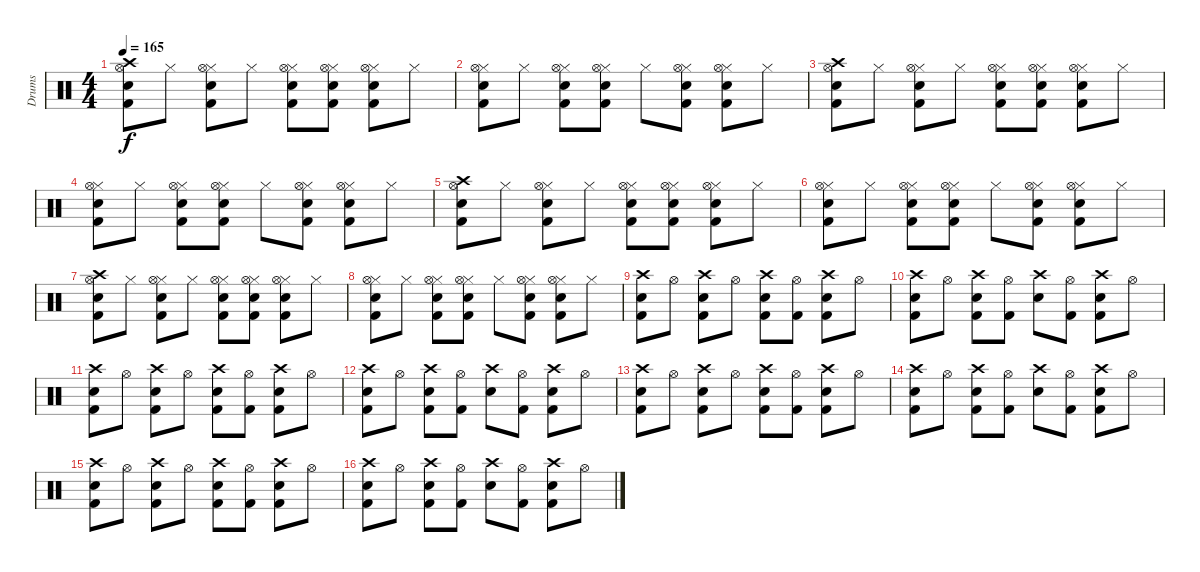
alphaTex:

\track ("Drums" "Drums") {instrument percussion}
\staff {score}
\articulation defaults
\ts (4 4)
\tempo 165
\clef neutral
\ks c
("Crash high (hit)" "Electric Snare (hit)" "Kick (hit) 2" "Hi-Hat (open)").8{dy f} "Hi-Hat (closed)".8 ("Hi-Hat (closed)" "Electric Snare (hit)" "Kick (hit) 2" "Hi-Hat (open)").8 "Hi-Hat (closed)".8 ("Hi-Hat (closed)" "Electric Snare (hit)" "Kick (hit) 2" "Hi-Hat (open)").8 ("Hi-Hat (closed)" "Electric Snare (hit)" "Kick (hit) 2" "Hi-Hat (open)").8 ("Hi-Hat (closed)" "Electric Snare (hit)" "Kick (hit) 2" "Hi-Hat (open)").8 "Hi-Hat (closed)".8 |
("Hi-Hat (closed)" "Electric Snare (hit)" "Kick (hit) 2" "Hi-Hat (open)").8 "Hi-Hat (closed)".8 ("Hi-Hat (closed)" "Electric Snare (hit)" "Kick (hit) 2" "Hi-Hat (open)").8 ("Hi-Hat (closed)" "Electric Snare (hit)" "Kick (hit) 2" "Hi-Hat (open)").8 "Hi-Hat (closed)".8 ("Hi-Hat (closed)" "Electric Snare (hit)" "Kick (hit) 2" "Hi-Hat (open)").8 ("Hi-Hat (closed)" "Electric Snare (hit)" "Kick (hit) 2" "Hi-Hat (open)").8 "Hi-Hat (closed)".8 |
("Crash high (hit)" "Electric Snare (hit)" "Kick (hit) 2" "Hi-Hat (open)").8 "Hi-Hat (closed)".8 ("Hi-Hat (closed)" "Electric Snare (hit)" "Kick (hit) 2" "Hi-Hat (open)").8 "Hi-Hat (closed)".8 ("Hi-Hat (closed)" "Electric Snare (hit)" "Kick (hit) 2" "Hi-Hat (open)").8 ("Hi-Hat (closed)" "Electric Snare (hit)" "Kick (hit) 2" "Hi-Hat (open)").8 ("Hi-Hat (closed)" "Electric Snare (hit)" "Kick (hit) 2" "Hi-Hat (open)").8 "Hi-Hat (closed)".8 |
("Hi-Hat (closed)" "Electric Snare (hit)" "Kick (hit) 2" "Hi-Hat (open)").8 "Hi-Hat (closed)".8 ("Hi-Hat (closed)" "Electric Snare (hit)" "Kick (hit) 2" "Hi-Hat (open)").8 ("Hi-Hat (closed)" "Electric Snare (hit)" "Kick (hit) 2" "Hi-Hat (open)").8 "Hi-Hat (closed)".8 ("Hi-Hat (closed)" "Electric Snare (hit)" "Kick (hit) 2" "Hi-Hat (open)").8 ("Hi-Hat (closed)" "Electric Snare (hit)" "Kick (hit) 2" "Hi-Hat (open)").8 "Hi-Hat (closed)".8 |
("Crash high (hit)" "Electric Snare (hit)" "Kick (hit) 2" "Hi-Hat (open)").8 "Hi-Hat (closed)".8 ("Hi-Hat (closed)" "Electric Snare (hit)" "Kick (hit) 2" "Hi-Hat (open)").8 "Hi-Hat (closed)".8 ("Hi-Hat (closed)" "Electric Snare (hit)" "Kick (hit) 2" "Hi-Hat (open)").8 ("Hi-Hat (closed)" "Electric Snare (hit)" "Kick (hit) 2" "Hi-Hat (open)").8 ("Hi-Hat (closed)" "Electric Snare (hit)" "Kick (hit) 2" "Hi-Hat (open)").8 "Hi-Hat (closed)".8 |
("Hi-Hat (closed)" "Electric Snare (hit)" "Kick (hit) 2" "Hi-Hat (open)").8 "Hi-Hat (closed)".8 ("Hi-Hat (closed)" "Electric Snare (hit)" "Kick (hit) 2" "Hi-Hat (open)").8 ("Hi-Hat (closed)" "Electric Snare (hit)" "Kick (hit) 2" "Hi-Hat (open)").8 "Hi-Hat (closed)".8 ("Hi-Hat (closed)" "Electric Snare (hit)" "Kick (hit) 2" "Hi-Hat (open)").8 ("Hi-Hat (closed)" "Electric Snare (hit)" "Kick (hit) 2" "Hi-Hat (open)").8 "Hi-Hat (closed)".8 |
("Crash high (hit)" "Electric Snare (hit)" "Kick (hit) 2" "Hi-Hat (open)").8 "Hi-Hat (closed)".8 ("Hi-Hat (closed)" "Electric Snare (hit)" "Kick (hit) 2" "Hi-Hat (open)").8 "Hi-Hat (closed)".8 ("Hi-Hat (closed)" "Electric Snare (hit)" "Kick (hit) 2" "Hi-Hat (open)").8 ("Hi-Hat (closed)" "Electric Snare (hit)" "Kick (hit) 2" "Hi-Hat (open)").8 ("Hi-Hat (closed)" "Electric Snare (hit)" "Kick (hit) 2" "Hi-Hat (open)").8 "Hi-Hat (closed)".8 |
("Hi-Hat (closed)" "Electric Snare (hit)" "Kick (hit) 2" "Hi-Hat (open)").8 "Hi-Hat (closed)".8 ("Hi-Hat (closed)" "Electric Snare (hit)" "Kick (hit) 2" "Hi-Hat (open)").8 ("Hi-Hat (closed)" "Electric Snare (hit)" "Kick (hit) 2" "Hi-Hat (open)").8 "Hi-Hat (closed)".8 ("Hi-Hat (closed)" "Electric Snare (hit)" "Kick (hit) 2" "Hi-Hat (open)").8 ("Hi-Hat (closed)" "Electric Snare (hit)" "Kick (hit) 2" "Hi-Hat (open)").8 "Hi-Hat (closed)".8 |
("Crash high (hit)" "Electric Snare (hit)" "Kick (hit) 2").8 "Hi-Hat (open)".8 ("Crash high (hit)" "Electric Snare (hit)" "Kick (hit) 2").8 "Hi-Hat (open)".8 ("Crash high (hit)" "Electric Snare (hit)" "Kick (hit) 2").8 ("Hi-Hat (open)" "Kick (hit) 2").8 ("Crash high (hit)" "Electric Snare (hit)" "Kick (hit) 2").8 "Hi-Hat (open)".8 |
("Crash high (hit)" "Electric Snare (hit)" "Kick (hit) 2").8 "Hi-Hat (open)".8 ("Crash high (hit)" "Electric Snare (hit)" "Kick (hit) 2").8 ("Hi-Hat (open)" "Kick (hit) 2").8 ("Crash high (hit)" "Electric Snare (hit)").8 ("Hi-Hat (open)" "Kick (hit) 2").8 ("Crash high (hit)" "Electric Snare (hit)" "Kick (hit) 2").8 "Hi-Hat (open)".8 |
("Crash high (hit)" "Electric Snare (hit)" "Kick (hit) 2").8 "Hi-Hat (open)".8 ("Crash high (hit)" "Electric Snare (hit)" "Kick (hit) 2").8 "Hi-Hat (open)".8 ("Crash high (hit)" "Electric Snare (hit)" "Kick (hit) 2").8 ("Hi-Hat (open)" "Kick (hit) 2").8 ("Crash high (hit)" "Electric Snare (hit)" "Kick (hit) 2").8 "Hi-Hat (open)".8 |
("Crash high (hit)" "Electric Snare (hit)" "Kick (hit) 2").8 "Hi-Hat (open)".8 ("Crash high (hit)" "Electric Snare (hit)" "Kick (hit) 2").8 ("Hi-Hat (open)" "Kick (hit) 2").8 ("Crash high (hit)" "Electric Snare (hit)").8 ("Hi-Hat (open)" "Kick (hit) 2").8 ("Crash high (hit)" "Electric Snare (hit)" "Kick (hit) 2").8 "Hi-Hat (open)".8 |
("Crash high (hit)" "Electric Snare (hit)" "Kick (hit) 2").8 "Hi-Hat (open)".8 ("Crash high (hit)" "Electric Snare (hit)" "Kick (hit) 2").8 "Hi-Hat (open)".8 ("Crash high (hit)" "Electric Snare (hit)" "Kick (hit) 2").8 ("Hi-Hat (open)" "Kick (hit) 2").8 ("Crash high (hit)" "Electric Snare (hit)" "Kick (hit) 2").8 "Hi-Hat (open)".8 |
("Crash high (hit)" "Electric Snare (hit)" "Kick (hit) 2").8 "Hi-Hat (open)".8 ("Crash high (hit)" "Electric Snare (hit)" "Kick (hit) 2").8 ("Hi-Hat (open)" "Kick (hit) 2").8 ("Crash high (hit)" "Electric Snare (hit)").8 ("Hi-Hat (open)" "Kick (hit) 2").8 ("Crash high (hit)" "Electric Snare (hit)" "Kick (hit) 2").8 "Hi-Hat (open)".8 |
("Crash high (hit)" "Electric Snare (hit)" "Kick (hit) 2").8 "Hi-Hat (open)".8 ("Crash high (hit)" "Electric Snare (hit)" "Kick (hit) 2").8 "Hi-Hat (open)".8 ("Crash high (hit)" "Electric Snare (hit)" "Kick (hit) 2").8 ("Hi-Hat (open)" "Kick (hit) 2").8 ("Crash high (hit)" "Electric Snare (hit)" "Kick (hit) 2").8 "Hi-Hat (open)".8 |
("Crash high (hit)" "Electric Snare (hit)" "Kick (hit) 2").8 "Hi-Hat (open)".8 ("Crash high (hit)" "Electric Snare (hit)" "Kick (hit) 2").8 ("Hi-Hat (open)" "Kick (hit) 2").8 ("Crash high (hit)" "Electric Snare (hit)").8 ("Hi-Hat (open)" "Kick (hit) 2").8 ("Crash high (hit)" "Electric Snare (hit)" "Kick (hit) 2").8 "Hi-Hat (open)".8
